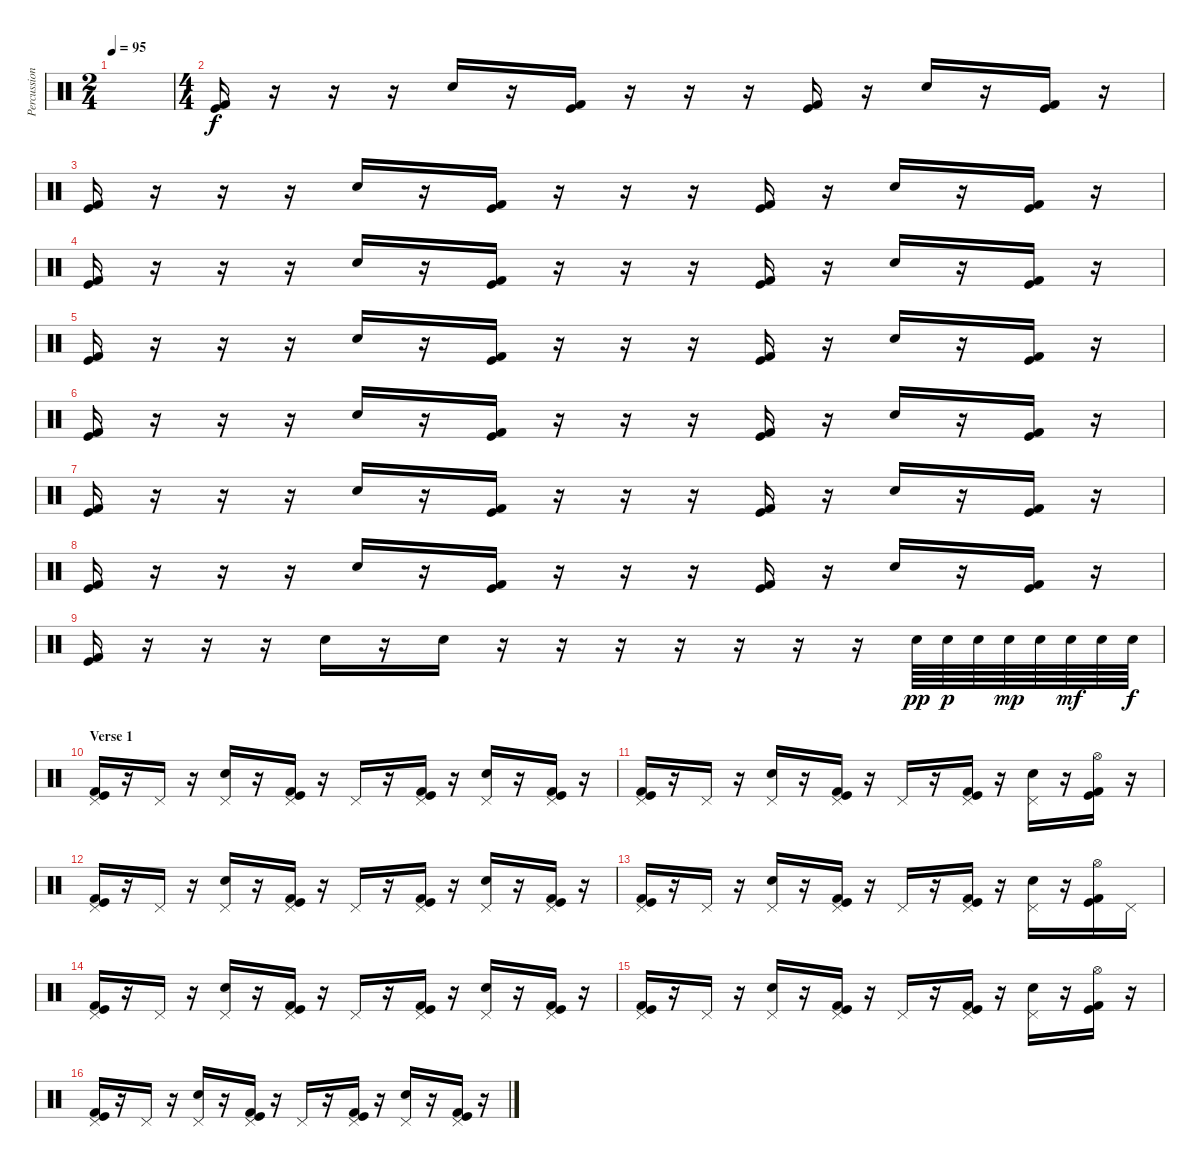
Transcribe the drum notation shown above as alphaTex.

\track ("Percussion" "Percussion") {instrument percussion}
\staff {score}
\articulation defaults
\ts (2 4)
\tempo 95
\clef neutral
\ks c
|
\ts (4 4)
("Kick (hit) 2" "Kick (hit)").16 r.16 r.16 r.16 "Snare (hit) 2".16 r.16 ("Kick (hit) 2" "Kick (hit)").16 r.16 r.16 r.16 ("Kick (hit) 2" "Kick (hit)").16 r.16 "Snare (hit) 2".16 r.16 ("Kick (hit) 2" "Kick (hit)").16 r.16 |
("Kick (hit) 2" "Kick (hit)").16 r.16 r.16 r.16 "Snare (hit) 2".16 r.16 ("Kick (hit) 2" "Kick (hit)").16 r.16 r.16 r.16 ("Kick (hit) 2" "Kick (hit)").16 r.16 "Snare (hit) 2".16 r.16 ("Kick (hit) 2" "Kick (hit)").16 r.16 |
("Kick (hit) 2" "Kick (hit)").16 r.16 r.16 r.16 "Snare (hit) 2".16 r.16 ("Kick (hit) 2" "Kick (hit)").16 r.16 r.16 r.16 ("Kick (hit) 2" "Kick (hit)").16 r.16 "Snare (hit) 2".16 r.16 ("Kick (hit) 2" "Kick (hit)").16 r.16 |
("Kick (hit) 2" "Kick (hit)").16 r.16 r.16 r.16 "Snare (hit) 2".16 r.16 ("Kick (hit) 2" "Kick (hit)").16 r.16 r.16 r.16 ("Kick (hit) 2" "Kick (hit)").16 r.16 "Snare (hit) 2".16 r.16 ("Kick (hit) 2" "Kick (hit)").16 r.16 |
("Kick (hit) 2" "Kick (hit)").16 r.16 r.16 r.16 "Snare (hit) 2".16 r.16 ("Kick (hit) 2" "Kick (hit)").16 r.16 r.16 r.16 ("Kick (hit) 2" "Kick (hit)").16 r.16 "Snare (hit) 2".16 r.16 ("Kick (hit) 2" "Kick (hit)").16 r.16 |
("Kick (hit) 2" "Kick (hit)").16 r.16 r.16 r.16 "Snare (hit) 2".16 r.16 ("Kick (hit) 2" "Kick (hit)").16 r.16 r.16 r.16 ("Kick (hit) 2" "Kick (hit)").16 r.16 "Snare (hit) 2".16 r.16 ("Kick (hit) 2" "Kick (hit)").16 r.16 |
("Kick (hit) 2" "Kick (hit)").16 r.16 r.16 r.16 "Snare (hit) 2".16 r.16 ("Kick (hit) 2" "Kick (hit)").16 r.16 r.16 r.16 ("Kick (hit) 2" "Kick (hit)").16 r.16 "Snare (hit) 2".16 r.16 ("Kick (hit) 2" "Kick (hit)").16 r.16 |
("Kick (hit) 2" "Kick (hit)").16 r.16 r.16 r.16 "Snare (hit) 2".16 r.16 "Snare (hit) 2".16 r.16 r.16 r.16 r.16 r.16 r.16 r.16 "Snare (hit) 2".64{dy pp} "Snare (hit) 2".64{dy p} "Snare (hit) 2".64 "Snare (hit) 2".64{dy mp} "Snare (hit) 2".64 "Snare (hit) 2".64{dy mf} "Snare (hit) 2".64 "Snare (hit) 2".64{dy f} |
\section ("" "Verse 1")
("Pedal Hi-Hat (hit)" "Kick (hit) 2" "Kick (hit)").16 r.16 "Pedal Hi-Hat (hit)".16 r.16 ("Pedal Hi-Hat (hit)" "Snare (hit) 2").16 r.16 ("Pedal Hi-Hat (hit)" "Kick (hit) 2" "Kick (hit)").16 r.16 "Pedal Hi-Hat (hit)".16 r.16 ("Pedal Hi-Hat (hit)" "Kick (hit) 2" "Kick (hit)").16 r.16 ("Pedal Hi-Hat (hit)" "Snare (hit) 2").16 r.16 ("Pedal Hi-Hat (hit)" "Kick (hit) 2" "Kick (hit)").16 r.16 |
("Pedal Hi-Hat (hit)" "Kick (hit) 2" "Kick (hit)").16 r.16 "Pedal Hi-Hat (hit)".16 r.16 ("Pedal Hi-Hat (hit)" "Snare (hit) 2").16 r.16 ("Pedal Hi-Hat (hit)" "Kick (hit) 2" "Kick (hit)").16 r.16 "Pedal Hi-Hat (hit)".16 r.16 ("Pedal Hi-Hat (hit)" "Kick (hit) 2" "Kick (hit)").16 r.16 ("Pedal Hi-Hat (hit)" "Snare (hit) 2").16 r.16 ("Hi-Hat (open)" "Kick (hit) 2" "Kick (hit)").16 r.16 |
("Pedal Hi-Hat (hit)" "Kick (hit) 2" "Kick (hit)").16 r.16 "Pedal Hi-Hat (hit)".16 r.16 ("Pedal Hi-Hat (hit)" "Snare (hit) 2").16 r.16 ("Pedal Hi-Hat (hit)" "Kick (hit) 2" "Kick (hit)").16 r.16 "Pedal Hi-Hat (hit)".16 r.16 ("Pedal Hi-Hat (hit)" "Kick (hit) 2" "Kick (hit)").16 r.16 ("Pedal Hi-Hat (hit)" "Snare (hit) 2").16 r.16 ("Pedal Hi-Hat (hit)" "Kick (hit) 2" "Kick (hit)").16 r.16 |
("Pedal Hi-Hat (hit)" "Kick (hit) 2" "Kick (hit)").16 r.16 "Pedal Hi-Hat (hit)".16 r.16 ("Pedal Hi-Hat (hit)" "Snare (hit) 2").16 r.16 ("Pedal Hi-Hat (hit)" "Kick (hit) 2" "Kick (hit)").16 r.16 "Pedal Hi-Hat (hit)".16 r.16 ("Pedal Hi-Hat (hit)" "Kick (hit) 2" "Kick (hit)").16 r.16 ("Pedal Hi-Hat (hit)" "Snare (hit) 2").16 r.16 ("Hi-Hat (open)" "Kick (hit) 2" "Kick (hit)").16 "Pedal Hi-Hat (hit)".16 |
("Pedal Hi-Hat (hit)" "Kick (hit) 2" "Kick (hit)").16 r.16 "Pedal Hi-Hat (hit)".16 r.16 ("Pedal Hi-Hat (hit)" "Snare (hit) 2").16 r.16 ("Pedal Hi-Hat (hit)" "Kick (hit) 2" "Kick (hit)").16 r.16 "Pedal Hi-Hat (hit)".16 r.16 ("Pedal Hi-Hat (hit)" "Kick (hit) 2" "Kick (hit)").16 r.16 ("Pedal Hi-Hat (hit)" "Snare (hit) 2").16 r.16 ("Pedal Hi-Hat (hit)" "Kick (hit) 2" "Kick (hit)").16 r.16 |
("Pedal Hi-Hat (hit)" "Kick (hit) 2" "Kick (hit)").16 r.16 "Pedal Hi-Hat (hit)".16 r.16 ("Pedal Hi-Hat (hit)" "Snare (hit) 2").16 r.16 ("Pedal Hi-Hat (hit)" "Kick (hit) 2" "Kick (hit)").16 r.16 "Pedal Hi-Hat (hit)".16 r.16 ("Pedal Hi-Hat (hit)" "Kick (hit) 2" "Kick (hit)").16 r.16 ("Pedal Hi-Hat (hit)" "Snare (hit) 2").16 r.16 ("Hi-Hat (open)" "Kick (hit) 2" "Kick (hit)").16 r.16 |
("Pedal Hi-Hat (hit)" "Kick (hit) 2" "Kick (hit)").16 r.16 "Pedal Hi-Hat (hit)".16 r.16 ("Pedal Hi-Hat (hit)" "Snare (hit) 2").16 r.16 ("Pedal Hi-Hat (hit)" "Kick (hit) 2" "Kick (hit)").16 r.16 "Pedal Hi-Hat (hit)".16 r.16 ("Pedal Hi-Hat (hit)" "Kick (hit) 2" "Kick (hit)").16 r.16 ("Pedal Hi-Hat (hit)" "Snare (hit) 2").16 r.16 ("Pedal Hi-Hat (hit)" "Kick (hit) 2" "Kick (hit)").16 r.16
